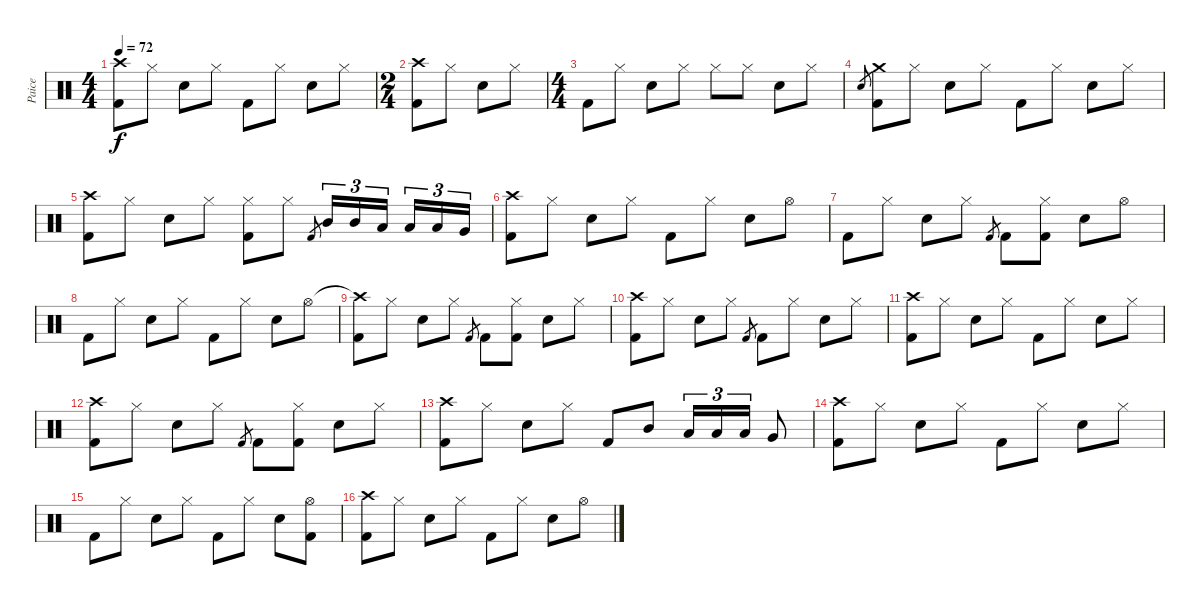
\track ("Paice" "Paice") {instrument percussion}
\staff {score}
\articulation defaults
\ts (4 4)
\tempo 72
\clef neutral
\ks c
("Crash high (hit)" "Kick (hit) 2").8{dy f} "Hi-Hat (closed)".8 "Electric Snare (hit)".8 "Hi-Hat (closed)".8 "Kick (hit) 2".8 "Hi-Hat (closed)".8 "Electric Snare (hit)".8 "Hi-Hat (closed)".8 |
\ts (2 4)
("Crash high (hit)" "Kick (hit) 2").8 "Hi-Hat (closed)".8 "Electric Snare (hit)".8 "Hi-Hat (closed)".8 |
\ts (4 4)
"Kick (hit) 2".8 "Hi-Hat (closed)".8 "Electric Snare (hit)".8 "Hi-Hat (closed)".8 "Hi-Hat (closed)".8 "Hi-Hat (closed)".8 "Electric Snare (hit)".8 "Hi-Hat (closed)".8 |
"Electric Snare (hit)".8{gr} ("Crash medium (hit)" "Kick (hit) 2").8 "Hi-Hat (closed)".8 "Electric Snare (hit)".8 "Hi-Hat (closed)".8 "Kick (hit) 2".8 "Hi-Hat (closed)".8 "Electric Snare (hit)".8 "Hi-Hat (closed)".8 |
("Crash high (hit)" "Kick (hit) 2").8 "Hi-Hat (closed)".8 "Electric Snare (hit)".8 "Hi-Hat (closed)".8 ("Hi-Hat (closed)" "Kick (hit) 2").8 "Hi-Hat (closed)".8 "Kick (hit) 2".8{gr} "Mid Tom (hit)".16{tu (3 2)} "Mid Tom (hit)".16{tu (3 2)} "Low Tom (hit)".16{tu (3 2)} "Low Tom (hit)".16{tu (3 2)} "Low Tom (hit)".16{tu (3 2)} "Very Low Tom (hit)".16{tu (3 2)} |
("Crash high (hit)" "Kick (hit) 2").8 "Hi-Hat (closed)".8 "Electric Snare (hit)".8 "Hi-Hat (closed)".8 "Kick (hit) 2".8 "Hi-Hat (closed)".8 "Electric Snare (hit)".8 "Hi-Hat (open)".8 |
"Kick (hit) 2".8 "Hi-Hat (closed)".8 "Electric Snare (hit)".8 "Hi-Hat (closed)".8 "Kick (hit) 2".8{gr} "Kick (hit) 2".8 ("Hi-Hat (closed)" "Kick (hit) 2").8 "Electric Snare (hit)".8 "Hi-Hat (open)".8 |
"Kick (hit) 2".8 "Hi-Hat (closed)".8 "Electric Snare (hit)".8 "Hi-Hat (closed)".8 "Kick (hit) 2".8 "Hi-Hat (closed)".8 "Electric Snare (hit)".8 "Hi-Hat (open)".8 |
("Crash high (hit)"{t} "Kick (hit) 2").8 "Hi-Hat (closed)".8 "Electric Snare (hit)".8 "Hi-Hat (closed)".8 "Kick (hit) 2".8{gr} "Kick (hit) 2".8 ("Hi-Hat (closed)" "Kick (hit) 2").8 "Electric Snare (hit)".8 "Hi-Hat (closed)".8 |
("Crash high (hit)" "Kick (hit) 2").8 "Hi-Hat (closed)".8 "Electric Snare (hit)".8 "Hi-Hat (closed)".8 "Kick (hit) 2".8{gr} "Kick (hit) 2".8 "Hi-Hat (closed)".8 "Electric Snare (hit)".8 "Hi-Hat (closed)".8 |
("Crash high (hit)" "Kick (hit) 2").8 "Hi-Hat (closed)".8 "Electric Snare (hit)".8 "Hi-Hat (closed)".8 "Kick (hit) 2".8 "Hi-Hat (closed)".8 "Electric Snare (hit)".8 "Hi-Hat (closed)".8 |
("Crash high (hit)" "Kick (hit) 2").8 "Hi-Hat (closed)".8 "Electric Snare (hit)".8 "Hi-Hat (closed)".8 "Kick (hit) 2".8{gr} "Kick (hit) 2".8 ("Hi-Hat (closed)" "Kick (hit) 2").8 "Electric Snare (hit)".8 "Hi-Hat (closed)".8 |
("Crash high (hit)" "Kick (hit) 2").8 "Hi-Hat (closed)".8 "Electric Snare (hit)".8 "Hi-Hat (closed)".8 "Kick (hit) 2".8 "Mid Tom (hit)".8 "Low Tom (hit)".16{tu (3 2)} "Low Tom (hit)".16{tu (3 2)} "Low Tom (hit)".16{tu (3 2)} "Very Low Tom (hit)".8 |
("Crash high (hit)" "Kick (hit) 2").8 "Hi-Hat (closed)".8 "Electric Snare (hit)".8 "Hi-Hat (closed)".8 "Kick (hit) 2".8 "Hi-Hat (closed)".8 "Electric Snare (hit)".8 "Hi-Hat (closed)".8 |
"Kick (hit) 2".8 "Hi-Hat (closed)".8 "Electric Snare (hit)".8 "Hi-Hat (closed)".8 "Kick (hit) 2".8 "Hi-Hat (closed)".8 "Electric Snare (hit)".8 ("Hi-Hat (open)" "Kick (hit) 2").8 |
("Crash high (hit)" "Kick (hit) 2").8 "Hi-Hat (closed)".8 "Electric Snare (hit)".8 "Hi-Hat (closed)".8 "Kick (hit) 2".8 "Hi-Hat (closed)".8 "Electric Snare (hit)".8 "Hi-Hat (open)".8
